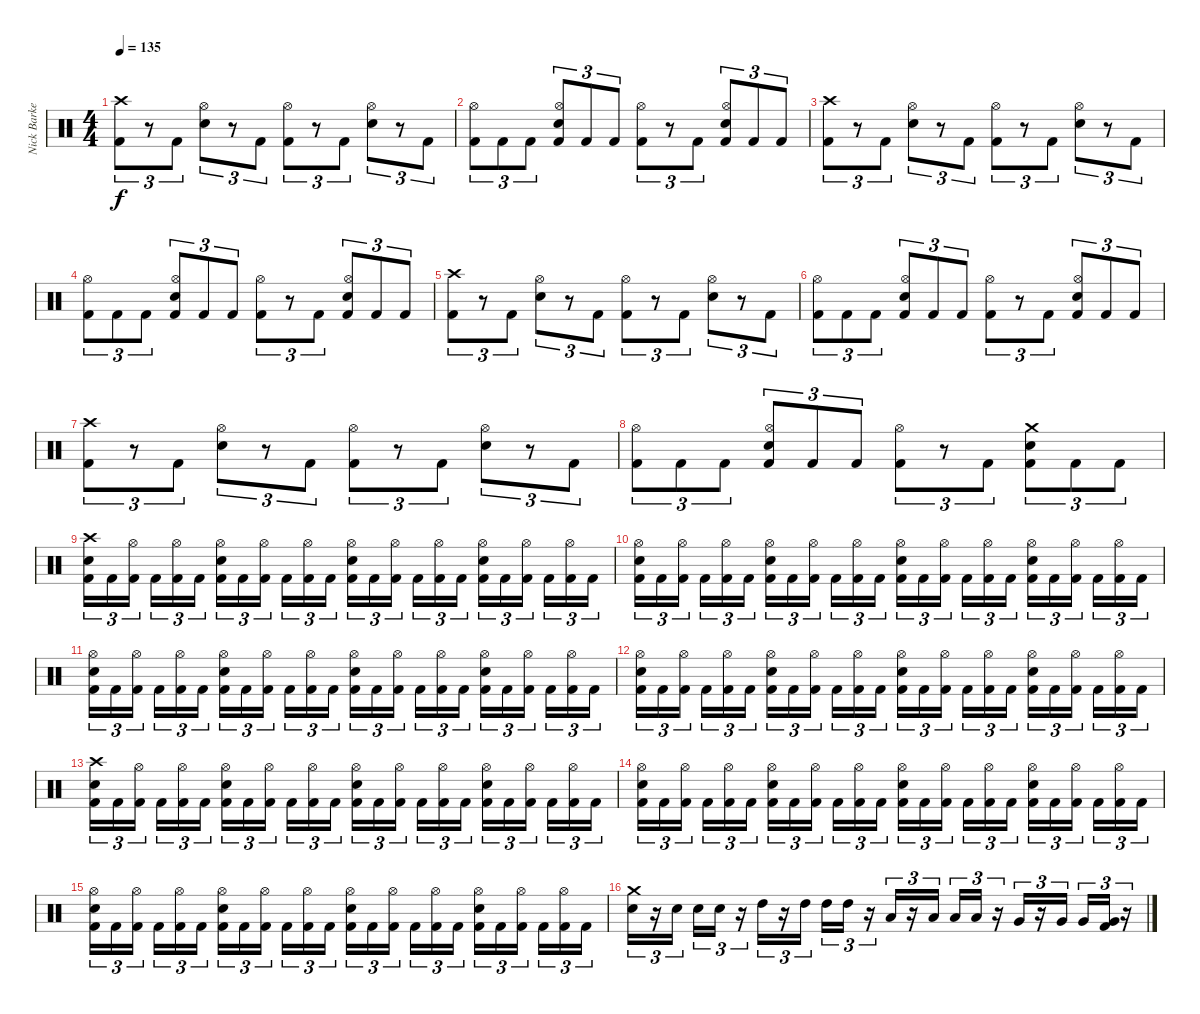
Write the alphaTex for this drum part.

\track ("Nick Barker" "Nick Barke") {instrument percussion}
\staff {score}
\articulation defaults
\ts (4 4)
\section ("" "")
\tempo 135
\clef neutral
\ks c
("Crash high (hit)" "Kick (hit) 2").8{tu (3 2) dy f} r.8{tu (3 2)} "Kick (hit) 2".8{tu (3 2)} ("Hi-Hat (open)" "Electric Snare (hit)").8{tu (3 2)} r.8{tu (3 2)} "Kick (hit) 2".8{tu (3 2)} ("Hi-Hat (open)" "Kick (hit) 2").8{tu (3 2)} r.8{tu (3 2)} "Kick (hit) 2".8{tu (3 2)} ("Hi-Hat (open)" "Electric Snare (hit)").8{tu (3 2)} r.8{tu (3 2)} "Kick (hit) 2".8{tu (3 2)} |
("Hi-Hat (open)" "Kick (hit) 2").8{tu (3 2)} "Kick (hit) 2".8{tu (3 2)} "Kick (hit) 2".8{tu (3 2)} ("Hi-Hat (open)" "Electric Snare (hit)" "Kick (hit) 2").8{tu (3 2)} "Kick (hit) 2".8{tu (3 2)} "Kick (hit) 2".8{tu (3 2)} ("Hi-Hat (open)" "Kick (hit) 2").8{tu (3 2)} r.8{tu (3 2)} "Kick (hit) 2".8{tu (3 2)} ("Hi-Hat (open)" "Electric Snare (hit)" "Kick (hit) 2").8{tu (3 2)} "Kick (hit) 2".8{tu (3 2)} "Kick (hit) 2".8{tu (3 2)} |
("Crash high (hit)" "Kick (hit) 2").8{tu (3 2)} r.8{tu (3 2)} "Kick (hit) 2".8{tu (3 2)} ("Hi-Hat (open)" "Electric Snare (hit)").8{tu (3 2)} r.8{tu (3 2)} "Kick (hit) 2".8{tu (3 2)} ("Hi-Hat (open)" "Kick (hit) 2").8{tu (3 2)} r.8{tu (3 2)} "Kick (hit) 2".8{tu (3 2)} ("Hi-Hat (open)" "Electric Snare (hit)").8{tu (3 2)} r.8{tu (3 2)} "Kick (hit) 2".8{tu (3 2)} |
("Hi-Hat (open)" "Kick (hit) 2").8{tu (3 2)} "Kick (hit) 2".8{tu (3 2)} "Kick (hit) 2".8{tu (3 2)} ("Hi-Hat (open)" "Electric Snare (hit)" "Kick (hit) 2").8{tu (3 2)} "Kick (hit) 2".8{tu (3 2)} "Kick (hit) 2".8{tu (3 2)} ("Hi-Hat (open)" "Kick (hit) 2").8{tu (3 2)} r.8{tu (3 2)} "Kick (hit) 2".8{tu (3 2)} ("Hi-Hat (open)" "Electric Snare (hit)" "Kick (hit) 2").8{tu (3 2)} "Kick (hit) 2".8{tu (3 2)} "Kick (hit) 2".8{tu (3 2)} |
("Crash high (hit)" "Kick (hit) 2").8{tu (3 2)} r.8{tu (3 2)} "Kick (hit) 2".8{tu (3 2)} ("Hi-Hat (open)" "Electric Snare (hit)").8{tu (3 2)} r.8{tu (3 2)} "Kick (hit) 2".8{tu (3 2)} ("Hi-Hat (open)" "Kick (hit) 2").8{tu (3 2)} r.8{tu (3 2)} "Kick (hit) 2".8{tu (3 2)} ("Hi-Hat (open)" "Electric Snare (hit)").8{tu (3 2)} r.8{tu (3 2)} "Kick (hit) 2".8{tu (3 2)} |
("Hi-Hat (open)" "Kick (hit) 2").8{tu (3 2)} "Kick (hit) 2".8{tu (3 2)} "Kick (hit) 2".8{tu (3 2)} ("Hi-Hat (open)" "Electric Snare (hit)" "Kick (hit) 2").8{tu (3 2)} "Kick (hit) 2".8{tu (3 2)} "Kick (hit) 2".8{tu (3 2)} ("Hi-Hat (open)" "Kick (hit) 2").8{tu (3 2)} r.8{tu (3 2)} "Kick (hit) 2".8{tu (3 2)} ("Hi-Hat (open)" "Electric Snare (hit)" "Kick (hit) 2").8{tu (3 2)} "Kick (hit) 2".8{tu (3 2)} "Kick (hit) 2".8{tu (3 2)} |
("Crash high (hit)" "Kick (hit) 2").8{tu (3 2)} r.8{tu (3 2)} "Kick (hit) 2".8{tu (3 2)} ("Hi-Hat (open)" "Electric Snare (hit)").8{tu (3 2)} r.8{tu (3 2)} "Kick (hit) 2".8{tu (3 2)} ("Hi-Hat (open)" "Kick (hit) 2").8{tu (3 2)} r.8{tu (3 2)} "Kick (hit) 2".8{tu (3 2)} ("Hi-Hat (open)" "Electric Snare (hit)").8{tu (3 2)} r.8{tu (3 2)} "Kick (hit) 2".8{tu (3 2)} |
("Hi-Hat (open)" "Kick (hit) 2").8{tu (3 2)} "Kick (hit) 2".8{tu (3 2)} "Kick (hit) 2".8{tu (3 2)} ("Hi-Hat (open)" "Electric Snare (hit)" "Kick (hit) 2").8{tu (3 2)} "Kick (hit) 2".8{tu (3 2)} "Kick (hit) 2".8{tu (3 2)} ("Hi-Hat (open)" "Kick (hit) 2").8{tu (3 2)} r.8{tu (3 2)} "Kick (hit) 2".8{tu (3 2)} ("Crash medium (hit)" "Electric Snare (hit)" "Kick (hit) 2").8{tu (3 2)} "Kick (hit) 2".8{tu (3 2)} "Kick (hit) 2".8{tu (3 2)} |
\section ("" "")
("Crash high (hit)" "Electric Snare (hit)" "Kick (hit) 2").16{tu (3 2)} "Kick (hit) 2".16{tu (3 2)} ("Hi-Hat (open)" "Kick (hit) 2").16{tu (3 2)} "Kick (hit) 2".16{tu (3 2)} ("Hi-Hat (open)" "Kick (hit) 2").16{tu (3 2)} "Kick (hit) 2".16{tu (3 2)} ("Hi-Hat (open)" "Electric Snare (hit)" "Kick (hit) 2").16{tu (3 2)} "Kick (hit) 2".16{tu (3 2)} ("Hi-Hat (open)" "Kick (hit) 2").16{tu (3 2)} "Kick (hit) 2".16{tu (3 2)} ("Hi-Hat (open)" "Kick (hit) 2").16{tu (3 2)} "Kick (hit) 2".16{tu (3 2)} ("Hi-Hat (open)" "Electric Snare (hit)" "Kick (hit) 2").16{tu (3 2)} "Kick (hit) 2".16{tu (3 2)} ("Hi-Hat (open)" "Kick (hit) 2").16{tu (3 2)} "Kick (hit) 2".16{tu (3 2)} ("Hi-Hat (open)" "Kick (hit) 2").16{tu (3 2)} "Kick (hit) 2".16{tu (3 2)} ("Hi-Hat (open)" "Electric Snare (hit)" "Kick (hit) 2").16{tu (3 2)} "Kick (hit) 2".16{tu (3 2)} ("Hi-Hat (open)" "Kick (hit) 2").16{tu (3 2)} "Kick (hit) 2".16{tu (3 2)} ("Hi-Hat (open)" "Kick (hit) 2").16{tu (3 2)} "Kick (hit) 2".16{tu (3 2)} |
("Hi-Hat (open)" "Electric Snare (hit)" "Kick (hit) 2").16{tu (3 2)} "Kick (hit) 2".16{tu (3 2)} ("Hi-Hat (open)" "Kick (hit) 2").16{tu (3 2)} "Kick (hit) 2".16{tu (3 2)} ("Hi-Hat (open)" "Kick (hit) 2").16{tu (3 2)} "Kick (hit) 2".16{tu (3 2)} ("Hi-Hat (open)" "Electric Snare (hit)" "Kick (hit) 2").16{tu (3 2)} "Kick (hit) 2".16{tu (3 2)} ("Hi-Hat (open)" "Kick (hit) 2").16{tu (3 2)} "Kick (hit) 2".16{tu (3 2)} ("Hi-Hat (open)" "Kick (hit) 2").16{tu (3 2)} "Kick (hit) 2".16{tu (3 2)} ("Hi-Hat (open)" "Electric Snare (hit)" "Kick (hit) 2").16{tu (3 2)} "Kick (hit) 2".16{tu (3 2)} ("Hi-Hat (open)" "Kick (hit) 2").16{tu (3 2)} "Kick (hit) 2".16{tu (3 2)} ("Hi-Hat (open)" "Kick (hit) 2").16{tu (3 2)} "Kick (hit) 2".16{tu (3 2)} ("Hi-Hat (open)" "Electric Snare (hit)" "Kick (hit) 2").16{tu (3 2)} "Kick (hit) 2".16{tu (3 2)} ("Hi-Hat (open)" "Kick (hit) 2").16{tu (3 2)} "Kick (hit) 2".16{tu (3 2)} ("Hi-Hat (open)" "Kick (hit) 2").16{tu (3 2)} "Kick (hit) 2".16{tu (3 2)} |
("Hi-Hat (open)" "Electric Snare (hit)" "Kick (hit) 2").16{tu (3 2)} "Kick (hit) 2".16{tu (3 2)} ("Hi-Hat (open)" "Kick (hit) 2").16{tu (3 2)} "Kick (hit) 2".16{tu (3 2)} ("Hi-Hat (open)" "Kick (hit) 2").16{tu (3 2)} "Kick (hit) 2".16{tu (3 2)} ("Hi-Hat (open)" "Electric Snare (hit)" "Kick (hit) 2").16{tu (3 2)} "Kick (hit) 2".16{tu (3 2)} ("Hi-Hat (open)" "Kick (hit) 2").16{tu (3 2)} "Kick (hit) 2".16{tu (3 2)} ("Hi-Hat (open)" "Kick (hit) 2").16{tu (3 2)} "Kick (hit) 2".16{tu (3 2)} ("Hi-Hat (open)" "Electric Snare (hit)" "Kick (hit) 2").16{tu (3 2)} "Kick (hit) 2".16{tu (3 2)} ("Hi-Hat (open)" "Kick (hit) 2").16{tu (3 2)} "Kick (hit) 2".16{tu (3 2)} ("Hi-Hat (open)" "Kick (hit) 2").16{tu (3 2)} "Kick (hit) 2".16{tu (3 2)} ("Hi-Hat (open)" "Electric Snare (hit)" "Kick (hit) 2").16{tu (3 2)} "Kick (hit) 2".16{tu (3 2)} ("Hi-Hat (open)" "Kick (hit) 2").16{tu (3 2)} "Kick (hit) 2".16{tu (3 2)} ("Hi-Hat (open)" "Kick (hit) 2").16{tu (3 2)} "Kick (hit) 2".16{tu (3 2)} |
("Hi-Hat (open)" "Electric Snare (hit)" "Kick (hit) 2").16{tu (3 2)} "Kick (hit) 2".16{tu (3 2)} ("Hi-Hat (open)" "Kick (hit) 2").16{tu (3 2)} "Kick (hit) 2".16{tu (3 2)} ("Hi-Hat (open)" "Kick (hit) 2").16{tu (3 2)} "Kick (hit) 2".16{tu (3 2)} ("Hi-Hat (open)" "Electric Snare (hit)" "Kick (hit) 2").16{tu (3 2)} "Kick (hit) 2".16{tu (3 2)} ("Hi-Hat (open)" "Kick (hit) 2").16{tu (3 2)} "Kick (hit) 2".16{tu (3 2)} ("Hi-Hat (open)" "Kick (hit) 2").16{tu (3 2)} "Kick (hit) 2".16{tu (3 2)} ("Hi-Hat (open)" "Electric Snare (hit)" "Kick (hit) 2").16{tu (3 2)} "Kick (hit) 2".16{tu (3 2)} ("Hi-Hat (open)" "Kick (hit) 2").16{tu (3 2)} "Kick (hit) 2".16{tu (3 2)} ("Hi-Hat (open)" "Kick (hit) 2").16{tu (3 2)} "Kick (hit) 2".16{tu (3 2)} ("Hi-Hat (open)" "Electric Snare (hit)" "Kick (hit) 2").16{tu (3 2)} "Kick (hit) 2".16{tu (3 2)} ("Hi-Hat (open)" "Kick (hit) 2").16{tu (3 2)} "Kick (hit) 2".16{tu (3 2)} ("Hi-Hat (open)" "Kick (hit) 2").16{tu (3 2)} "Kick (hit) 2".16{tu (3 2)} |
("Crash high (hit)" "Electric Snare (hit)" "Kick (hit) 2").16{tu (3 2)} "Kick (hit) 2".16{tu (3 2)} ("Hi-Hat (open)" "Kick (hit) 2").16{tu (3 2)} "Kick (hit) 2".16{tu (3 2)} ("Hi-Hat (open)" "Kick (hit) 2").16{tu (3 2)} "Kick (hit) 2".16{tu (3 2)} ("Hi-Hat (open)" "Electric Snare (hit)" "Kick (hit) 2").16{tu (3 2)} "Kick (hit) 2".16{tu (3 2)} ("Hi-Hat (open)" "Kick (hit) 2").16{tu (3 2)} "Kick (hit) 2".16{tu (3 2)} ("Hi-Hat (open)" "Kick (hit) 2").16{tu (3 2)} "Kick (hit) 2".16{tu (3 2)} ("Hi-Hat (open)" "Electric Snare (hit)" "Kick (hit) 2").16{tu (3 2)} "Kick (hit) 2".16{tu (3 2)} ("Hi-Hat (open)" "Kick (hit) 2").16{tu (3 2)} "Kick (hit) 2".16{tu (3 2)} ("Hi-Hat (open)" "Kick (hit) 2").16{tu (3 2)} "Kick (hit) 2".16{tu (3 2)} ("Hi-Hat (open)" "Electric Snare (hit)" "Kick (hit) 2").16{tu (3 2)} "Kick (hit) 2".16{tu (3 2)} ("Hi-Hat (open)" "Kick (hit) 2").16{tu (3 2)} "Kick (hit) 2".16{tu (3 2)} ("Hi-Hat (open)" "Kick (hit) 2").16{tu (3 2)} "Kick (hit) 2".16{tu (3 2)} |
("Hi-Hat (open)" "Electric Snare (hit)" "Kick (hit) 2").16{tu (3 2)} "Kick (hit) 2".16{tu (3 2)} ("Hi-Hat (open)" "Kick (hit) 2").16{tu (3 2)} "Kick (hit) 2".16{tu (3 2)} ("Hi-Hat (open)" "Kick (hit) 2").16{tu (3 2)} "Kick (hit) 2".16{tu (3 2)} ("Hi-Hat (open)" "Electric Snare (hit)" "Kick (hit) 2").16{tu (3 2)} "Kick (hit) 2".16{tu (3 2)} ("Hi-Hat (open)" "Kick (hit) 2").16{tu (3 2)} "Kick (hit) 2".16{tu (3 2)} ("Hi-Hat (open)" "Kick (hit) 2").16{tu (3 2)} "Kick (hit) 2".16{tu (3 2)} ("Hi-Hat (open)" "Electric Snare (hit)" "Kick (hit) 2").16{tu (3 2)} "Kick (hit) 2".16{tu (3 2)} ("Hi-Hat (open)" "Kick (hit) 2").16{tu (3 2)} "Kick (hit) 2".16{tu (3 2)} ("Hi-Hat (open)" "Kick (hit) 2").16{tu (3 2)} "Kick (hit) 2".16{tu (3 2)} ("Hi-Hat (open)" "Electric Snare (hit)" "Kick (hit) 2").16{tu (3 2)} "Kick (hit) 2".16{tu (3 2)} ("Hi-Hat (open)" "Kick (hit) 2").16{tu (3 2)} "Kick (hit) 2".16{tu (3 2)} ("Hi-Hat (open)" "Kick (hit) 2").16{tu (3 2)} "Kick (hit) 2".16{tu (3 2)} |
("Hi-Hat (open)" "Electric Snare (hit)" "Kick (hit) 2").16{tu (3 2)} "Kick (hit) 2".16{tu (3 2)} ("Hi-Hat (open)" "Kick (hit) 2").16{tu (3 2)} "Kick (hit) 2".16{tu (3 2)} ("Hi-Hat (open)" "Kick (hit) 2").16{tu (3 2)} "Kick (hit) 2".16{tu (3 2)} ("Hi-Hat (open)" "Electric Snare (hit)" "Kick (hit) 2").16{tu (3 2)} "Kick (hit) 2".16{tu (3 2)} ("Hi-Hat (open)" "Kick (hit) 2").16{tu (3 2)} "Kick (hit) 2".16{tu (3 2)} ("Hi-Hat (open)" "Kick (hit) 2").16{tu (3 2)} "Kick (hit) 2".16{tu (3 2)} ("Hi-Hat (open)" "Electric Snare (hit)" "Kick (hit) 2").16{tu (3 2)} "Kick (hit) 2".16{tu (3 2)} ("Hi-Hat (open)" "Kick (hit) 2").16{tu (3 2)} "Kick (hit) 2".16{tu (3 2)} ("Hi-Hat (open)" "Kick (hit) 2").16{tu (3 2)} "Kick (hit) 2".16{tu (3 2)} ("Hi-Hat (open)" "Electric Snare (hit)" "Kick (hit) 2").16{tu (3 2)} "Kick (hit) 2".16{tu (3 2)} ("Hi-Hat (open)" "Kick (hit) 2").16{tu (3 2)} "Kick (hit) 2".16{tu (3 2)} ("Hi-Hat (open)" "Kick (hit) 2").16{tu (3 2)} "Kick (hit) 2".16{tu (3 2)} |
("Crash medium (hit)" "Electric Snare (hit)").16{tu (3 2)} r.16{tu (3 2)} "Electric Snare (hit)".16{tu (3 2)} "Electric Snare (hit)".16{tu (3 2)} "Electric Snare (hit)".16{tu (3 2)} r.16{tu (3 2)} "High Tom (hit)".16{tu (3 2)} r.16{tu (3 2)} "High Tom (hit)".16{tu (3 2)} "High Tom (hit)".16{tu (3 2)} "High Tom (hit)".16{tu (3 2)} r.16{tu (3 2)} "Low Tom (hit)".16{tu (3 2)} r.16{tu (3 2)} "Low Tom (hit)".16{tu (3 2)} "Low Tom (hit)".16{tu (3 2)} "Low Tom (hit)".16{tu (3 2)} r.16{tu (3 2)} "Very Low Tom (hit)".16{tu (3 2)} r.16{tu (3 2)} "Very Low Tom (hit)".16{tu (3 2)} "Very Low Tom (hit)".16{tu (3 2)} ("Very Low Tom (hit)" "Kick (hit) 2").16{tu (3 2)} r.16{tu (3 2)}
